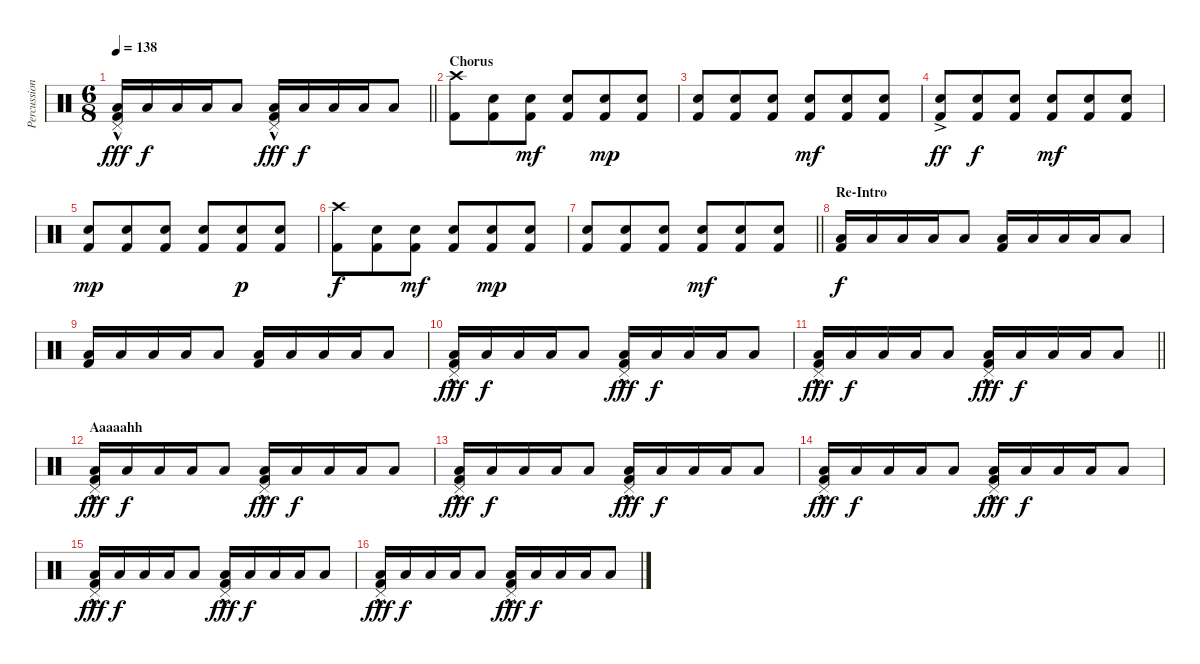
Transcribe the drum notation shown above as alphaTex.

\track ("Percussion" "Percussion") {instrument percussion}
\staff {score}
\articulation defaults
\ts (6 8)
\tempo 138
\clef neutral
\barLineRight lightlight
\ks c
("Pedal Hi-Hat (hit)"{hac} "Low Floor Tom (hit)" "Kick (hit) 2").16{dy fff} "Low Floor Tom (hit)".16{dy f} "Low Floor Tom (hit)".16 "Low Floor Tom (hit)".16 "Low Floor Tom (hit)".8 ("Pedal Hi-Hat (hit)"{hac} "Low Floor Tom (hit)" "Kick (hit) 2").16{dy fff} "Low Floor Tom (hit)".16{dy f} "Low Floor Tom (hit)".16 "Low Floor Tom (hit)".16 "Low Floor Tom (hit)".8 |
\section ("" "Chorus")
("Crash high (hit)" "Kick (hit) 2").8 ("Electric Snare (hit)" "Kick (hit) 2").8 ("Electric Snare (hit)" "Kick (hit) 2").8{dy mf} ("Electric Snare (hit)" "Kick (hit) 2").8 ("Electric Snare (hit)" "Kick (hit) 2").8{dy mp} ("Electric Snare (hit)" "Kick (hit) 2").8 |
("Electric Snare (hit)" "Kick (hit) 2").8 ("Electric Snare (hit)" "Kick (hit) 2").8 ("Electric Snare (hit)" "Kick (hit) 2").8 ("Electric Snare (hit)" "Kick (hit) 2").8{dy mf} ("Electric Snare (hit)" "Kick (hit) 2").8 ("Electric Snare (hit)" "Kick (hit) 2").8 |
("Electric Snare (hit)"{ac} "Kick (hit) 2").8{dy ff} ("Electric Snare (hit)" "Kick (hit) 2").8{dy f} ("Electric Snare (hit)" "Kick (hit) 2").8 ("Electric Snare (hit)" "Kick (hit) 2").8{dy mf} ("Electric Snare (hit)" "Kick (hit) 2").8 ("Electric Snare (hit)" "Kick (hit) 2").8 |
("Electric Snare (hit)" "Kick (hit) 2").8{dy mp} ("Electric Snare (hit)" "Kick (hit) 2").8 ("Electric Snare (hit)" "Kick (hit) 2").8 ("Electric Snare (hit)" "Kick (hit) 2").8 ("Electric Snare (hit)" "Kick (hit) 2").8{dy p} ("Electric Snare (hit)" "Kick (hit) 2").8 |
("Crash high (hit)" "Kick (hit) 2").8{dy f} ("Electric Snare (hit)" "Kick (hit) 2").8 ("Electric Snare (hit)" "Kick (hit) 2").8{dy mf} ("Electric Snare (hit)" "Kick (hit) 2").8 ("Electric Snare (hit)" "Kick (hit) 2").8{dy mp} ("Electric Snare (hit)" "Kick (hit) 2").8 |
\barLineRight lightlight
("Electric Snare (hit)" "Kick (hit) 2").8 ("Electric Snare (hit)" "Kick (hit) 2").8 ("Electric Snare (hit)" "Kick (hit) 2").8 ("Electric Snare (hit)" "Kick (hit) 2").8{dy mf} ("Electric Snare (hit)" "Kick (hit) 2").8 ("Electric Snare (hit)" "Kick (hit) 2").8 |
\section ("" "Re-Intro")
("Low Floor Tom (hit)" "Kick (hit) 2").16{dy f} "Low Floor Tom (hit)".16 "Low Floor Tom (hit)".16 "Low Floor Tom (hit)".16 "Low Floor Tom (hit)".8 ("Low Floor Tom (hit)" "Kick (hit) 2").16 "Low Floor Tom (hit)".16 "Low Floor Tom (hit)".16 "Low Floor Tom (hit)".16 "Low Floor Tom (hit)".8 |
("Low Floor Tom (hit)" "Kick (hit) 2").16 "Low Floor Tom (hit)".16 "Low Floor Tom (hit)".16 "Low Floor Tom (hit)".16 "Low Floor Tom (hit)".8 ("Low Floor Tom (hit)" "Kick (hit) 2").16 "Low Floor Tom (hit)".16 "Low Floor Tom (hit)".16 "Low Floor Tom (hit)".16 "Low Floor Tom (hit)".8 |
("Pedal Hi-Hat (hit)"{hac} "Low Floor Tom (hit)" "Kick (hit) 2").16{dy fff} "Low Floor Tom (hit)".16{dy f} "Low Floor Tom (hit)".16 "Low Floor Tom (hit)".16 "Low Floor Tom (hit)".8 ("Pedal Hi-Hat (hit)"{hac} "Low Floor Tom (hit)" "Kick (hit) 2").16{dy fff} "Low Floor Tom (hit)".16{dy f} "Low Floor Tom (hit)".16 "Low Floor Tom (hit)".16 "Low Floor Tom (hit)".8 |
\barLineRight lightlight
("Pedal Hi-Hat (hit)"{hac} "Low Floor Tom (hit)" "Kick (hit) 2").16{dy fff} "Low Floor Tom (hit)".16{dy f} "Low Floor Tom (hit)".16 "Low Floor Tom (hit)".16 "Low Floor Tom (hit)".8 ("Pedal Hi-Hat (hit)"{hac} "Low Floor Tom (hit)" "Kick (hit) 2").16{dy fff} "Low Floor Tom (hit)".16{dy f} "Low Floor Tom (hit)".16 "Low Floor Tom (hit)".16 "Low Floor Tom (hit)".8 |
\section ("" "Aaaaahh")
("Pedal Hi-Hat (hit)"{hac} "Low Floor Tom (hit)" "Kick (hit) 2").16{dy fff} "Low Floor Tom (hit)".16{dy f} "Low Floor Tom (hit)".16 "Low Floor Tom (hit)".16 "Low Floor Tom (hit)".8 ("Pedal Hi-Hat (hit)"{hac} "Low Floor Tom (hit)" "Kick (hit) 2").16{dy fff} "Low Floor Tom (hit)".16{dy f} "Low Floor Tom (hit)".16 "Low Floor Tom (hit)".16 "Low Floor Tom (hit)".8 |
("Pedal Hi-Hat (hit)"{hac} "Low Floor Tom (hit)" "Kick (hit) 2").16{dy fff} "Low Floor Tom (hit)".16{dy f} "Low Floor Tom (hit)".16 "Low Floor Tom (hit)".16 "Low Floor Tom (hit)".8 ("Pedal Hi-Hat (hit)"{hac} "Low Floor Tom (hit)" "Kick (hit) 2").16{dy fff} "Low Floor Tom (hit)".16{dy f} "Low Floor Tom (hit)".16 "Low Floor Tom (hit)".16 "Low Floor Tom (hit)".8 |
("Pedal Hi-Hat (hit)"{hac} "Low Floor Tom (hit)" "Kick (hit) 2").16{dy fff} "Low Floor Tom (hit)".16{dy f} "Low Floor Tom (hit)".16 "Low Floor Tom (hit)".16 "Low Floor Tom (hit)".8 ("Pedal Hi-Hat (hit)"{hac} "Low Floor Tom (hit)" "Kick (hit) 2").16{dy fff} "Low Floor Tom (hit)".16{dy f} "Low Floor Tom (hit)".16 "Low Floor Tom (hit)".16 "Low Floor Tom (hit)".8 |
("Pedal Hi-Hat (hit)"{hac} "Low Floor Tom (hit)" "Kick (hit) 2").16{dy fff} "Low Floor Tom (hit)".16{dy f} "Low Floor Tom (hit)".16 "Low Floor Tom (hit)".16 "Low Floor Tom (hit)".8 ("Pedal Hi-Hat (hit)"{hac} "Low Floor Tom (hit)" "Kick (hit) 2").16{dy fff} "Low Floor Tom (hit)".16{dy f} "Low Floor Tom (hit)".16 "Low Floor Tom (hit)".16 "Low Floor Tom (hit)".8 |
("Pedal Hi-Hat (hit)"{hac} "Low Floor Tom (hit)" "Kick (hit) 2").16{dy fff} "Low Floor Tom (hit)".16{dy f} "Low Floor Tom (hit)".16 "Low Floor Tom (hit)".16 "Low Floor Tom (hit)".8 ("Pedal Hi-Hat (hit)"{hac} "Low Floor Tom (hit)" "Kick (hit) 2").16{dy fff} "Low Floor Tom (hit)".16{dy f} "Low Floor Tom (hit)".16 "Low Floor Tom (hit)".16 "Low Floor Tom (hit)".8
